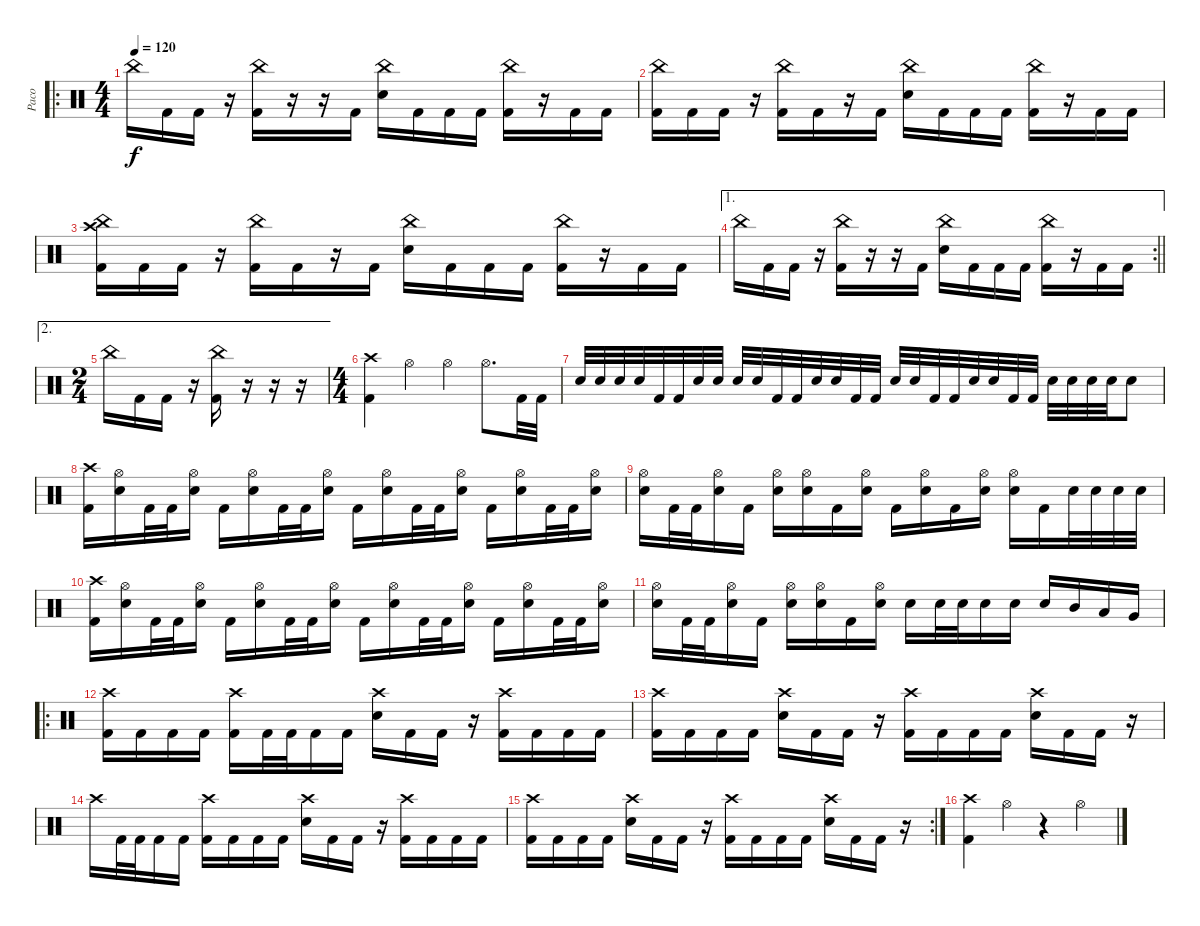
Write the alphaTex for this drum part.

\track ("Paco" "Paco") {instrument percussion}
\staff {score}
\articulation defaults
\ro
\ts (4 4)
\tempo 120
\clef neutral
\ks c "China (hit)".16{dy f} "Kick (hit) 2".16 "Kick (hit) 2".16
r.16 ("China (hit)" "Kick (hit) 2").16 r.16 r.16 "Kick (hit) 2".16 ("China (hit)" "Electric Snare (hit)").16 "Kick (hit) 2".16 "Kick (hit) 2".16 "Kick (hit) 2".16 ("China (hit)" "Kick (hit) 2").16 r.16 "Kick (hit) 2".16 "Kick (hit) 2".16 |
("China (hit)" "Kick (hit) 2").16 "Kick (hit) 2".16 "Kick (hit) 2".16 r.16 ("China (hit)" "Kick (hit) 2").16 "Kick (hit) 2".16 r.16 "Kick (hit) 2".16 ("China (hit)" "Electric Snare (hit)").16 "Kick (hit) 2".16 "Kick (hit) 2".16 "Kick (hit) 2".16 ("China (hit)" "Kick (hit) 2").16 r.16 "Kick (hit) 2".16 "Kick (hit) 2".16 |
("China (hit)" "Crash high (hit)" "Kick (hit) 2").16 "Kick (hit) 2".16 "Kick (hit) 2".16 r.16 ("China (hit)" "Kick (hit) 2").16 "Kick (hit) 2".16 r.16 "Kick (hit) 2".16 ("China (hit)" "Electric Snare (hit)").16 "Kick (hit) 2".16 "Kick (hit) 2".16 "Kick (hit) 2".16 ("China (hit)" "Kick (hit) 2").16 r.16 "Kick (hit) 2".16 "Kick (hit) 2".16 |
\ae 1
\rc 2
\barLineRight lightlight "China (hit)".16 "Kick (hit) 2".16 "Kick (hit) 2".16
r.16 ("China (hit)" "Kick (hit) 2").16 r.16 r.16 "Kick (hit) 2".16 ("China (hit)" "Electric Snare (hit)").16 "Kick (hit) 2".16 "Kick (hit) 2".16 "Kick (hit) 2".16 ("China (hit)" "Kick (hit) 2").16 r.16 "Kick (hit) 2".16 "Kick (hit) 2".16 |
\ae 2
\ts (2 4)
"China (hit)".16 "Kick (hit) 2".16 "Kick (hit) 2".16 r.16 ("China (hit)" "Kick (hit) 2").16 r.16 r.16 r.16 |
\ts (4 4)
("Crash high (hit)" "Kick (hit) 2").4 "Hi-Hat (open)".4 "Hi-Hat (open)".4 "Hi-Hat (open)".8{d} "Kick (hit) 2".32 "Kick (hit) 2".32 |
"Electric Snare (hit)".32 "Electric Snare (hit)".32 "Electric Snare (hit)".32 "Electric Snare (hit)".32 "Kick (hit) 2".32 "Kick (hit) 2".32 "Electric Snare (hit)".32 "Electric Snare (hit)".32 "Electric Snare (hit)".32 "Electric Snare (hit)".32 "Kick (hit) 2".32 "Kick (hit) 2".32 "Electric Snare (hit)".32 "Electric Snare (hit)".32 "Kick (hit) 2".32 "Kick (hit) 2".32 "Electric Snare (hit)".32 "Electric Snare (hit)".32 "Kick (hit) 2".32 "Kick (hit) 2".32 "Electric Snare (hit)".32 "Electric Snare (hit)".32 "Kick (hit) 2".32 "Kick (hit) 2".32 "Electric Snare (hit)".32 "Electric Snare (hit)".32 "Electric Snare (hit)".32 "Electric Snare (hit)".32 "Electric Snare (hit)".8 |
("Crash high (hit)" "Kick (hit) 2").16 ("Hi-Hat (open)" "Electric Snare (hit)").16 "Kick (hit) 2".32 "Kick (hit) 2".32 ("Hi-Hat (open)" "Electric Snare (hit)").16 "Kick (hit) 2".16 ("Hi-Hat (open)" "Electric Snare (hit)").16 "Kick (hit) 2".32 "Kick (hit) 2".32 ("Hi-Hat (open)" "Electric Snare (hit)").16 "Kick (hit) 2".16 ("Hi-Hat (open)" "Electric Snare (hit)").16 "Kick (hit) 2".32 "Kick (hit) 2".32 ("Hi-Hat (open)" "Electric Snare (hit)").16 "Kick (hit) 2".16 ("Hi-Hat (open)" "Electric Snare (hit)").16 "Kick (hit) 2".32 "Kick (hit) 2".32 ("Hi-Hat (open)" "Electric Snare (hit)").16 |
("Hi-Hat (open)" "Electric Snare (hit)").16 "Kick (hit) 2".32 "Kick (hit) 2".32 ("Hi-Hat (open)" "Electric Snare (hit)").16 "Kick (hit) 2".16 ("Hi-Hat (open)" "Electric Snare (hit)").16 ("Hi-Hat (open)" "Electric Snare (hit)").16 "Kick (hit) 2".16 ("Hi-Hat (open)" "Electric Snare (hit)").16 "Kick (hit) 2".16 ("Hi-Hat (open)" "Electric Snare (hit)").16 "Kick (hit) 2".16 ("Hi-Hat (open)" "Electric Snare (hit)").16 ("Hi-Hat (open)" "Electric Snare (hit)").16 "Kick (hit) 2".16 "Electric Snare (hit)".32 "Electric Snare (hit)".32 "Electric Snare (hit)".32 "Electric Snare (hit)".32 |
("Crash high (hit)" "Kick (hit) 2").16 ("Hi-Hat (open)" "Electric Snare (hit)").16 "Kick (hit) 2".32 "Kick (hit) 2".32 ("Hi-Hat (open)" "Electric Snare (hit)").16 "Kick (hit) 2".16 ("Hi-Hat (open)" "Electric Snare (hit)").16 "Kick (hit) 2".32 "Kick (hit) 2".32 ("Hi-Hat (open)" "Electric Snare (hit)").16 "Kick (hit) 2".16 ("Hi-Hat (open)" "Electric Snare (hit)").16 "Kick (hit) 2".32 "Kick (hit) 2".32 ("Hi-Hat (open)" "Electric Snare (hit)").16 "Kick (hit) 2".16 ("Hi-Hat (open)" "Electric Snare (hit)").16 "Kick (hit) 2".32 "Kick (hit) 2".32 ("Hi-Hat (open)" "Electric Snare (hit)").16 |
("Hi-Hat (open)" "Electric Snare (hit)").16 "Kick (hit) 2".32 "Kick (hit) 2".32 ("Hi-Hat (open)" "Electric Snare (hit)").16 "Kick (hit) 2".16 ("Hi-Hat (open)" "Electric Snare (hit)").16 ("Hi-Hat (open)" "Electric Snare (hit)").16 "Kick (hit) 2".16 ("Hi-Hat (open)" "Electric Snare (hit)").16 "Electric Snare (hit)".16 "Electric Snare (hit)".32 "Electric Snare (hit)".32 "Electric Snare (hit)".16 "Electric Snare (hit)".16 "Electric Snare (hit)".16 "Mid Tom (hit)".16 "Low Tom (hit)".16 "Very Low Tom (hit)".16 |
\ro
("Crash high (hit)" "Kick (hit) 2").16 "Kick (hit) 2".16 "Kick (hit) 2".16 "Kick (hit) 2".16 ("Crash high (hit)" "Kick (hit) 2").16 "Kick (hit) 2".32 "Kick (hit) 2".32 "Kick (hit) 2".16 "Kick (hit) 2".16 ("Crash high (hit)" "Electric Snare (hit)").16 "Kick (hit) 2".16 "Kick (hit) 2".16 r.16 ("Crash high (hit)" "Kick (hit) 2").16 "Kick (hit) 2".16 "Kick (hit) 2".16 "Kick (hit) 2".16 |
("Crash high (hit)" "Kick (hit) 2").16 "Kick (hit) 2".16 "Kick (hit) 2".16 "Kick (hit) 2".16 ("Crash high (hit)" "Electric Snare (hit)").16 "Kick (hit) 2".16 "Kick (hit) 2".16 r.16 ("Crash high (hit)" "Kick (hit) 2").16 "Kick (hit) 2".16 "Kick (hit) 2".16 "Kick (hit) 2".16 ("Crash high (hit)" "Electric Snare (hit)").16 "Kick (hit) 2".16 "Kick (hit) 2".16 r.16 |
"Crash high (hit)".16 "Kick (hit) 2".32 "Kick (hit) 2".32 "Kick (hit) 2".16 "Kick (hit) 2".16 ("Crash high (hit)" "Kick (hit) 2").16 "Kick (hit) 2".16 "Kick (hit) 2".16 "Kick (hit) 2".16 ("Crash high (hit)" "Electric Snare (hit)").16 "Kick (hit) 2".16 "Kick (hit) 2".16 r.16 ("Crash high (hit)" "Kick (hit) 2").16 "Kick (hit) 2".16 "Kick (hit) 2".16 "Kick (hit) 2".16 |
\rc 2
("Crash high (hit)" "Kick (hit) 2").16 "Kick (hit) 2".16 "Kick (hit) 2".16 "Kick (hit) 2".16 ("Crash high (hit)" "Electric Snare (hit)").16 "Kick (hit) 2".16 "Kick (hit) 2".16 r.16 ("Crash high (hit)" "Kick (hit) 2").16 "Kick (hit) 2".16 "Kick (hit) 2".16 "Kick (hit) 2".16 ("Crash high (hit)" "Electric Snare (hit)").16 "Kick (hit) 2".16 "Kick (hit) 2".16 r.16 |
("Crash high (hit)" "Kick (hit) 2").4 "Hi-Hat (open)".4 r.4 "Hi-Hat (open)".4
